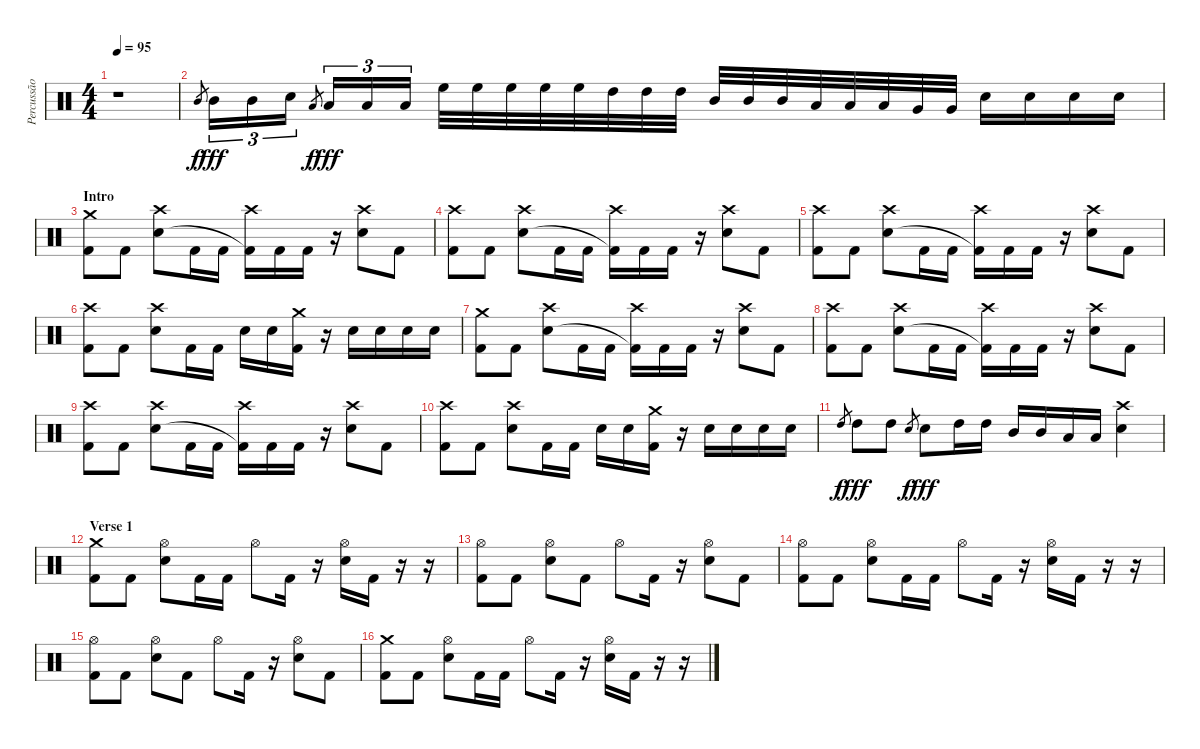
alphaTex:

\track ("Percussão" "Percussão") {instrument percussion}
\staff {score}
\articulation defaults
\ts (4 4)
\tempo 95
\clef neutral
\ks c
r.1{dy fff} |
"Mid Tom (hit)".8{gr dy f} "Mid Tom (hit)".16{tu (3 2) dy fff} "Mid Tom (hit)".16{tu (3 2)} "Snare (hit)".16{tu (3 2)} "Low Tom (hit)".8{gr dy f} "Low Tom (hit)".16{tu (3 2) dy fff} "Low Tom (hit)".16{tu (3 2)} "Low Tom (hit)".16{tu (3 2)} "High Floor Tom (hit)".32 "High Floor Tom (hit)".32 "High Floor Tom (hit)".32 "High Floor Tom (hit)".32 "High Floor Tom (hit)".32 "High Tom (hit)".32 "High Tom (hit)".32 "High Tom (hit)".32 "Mid Tom (hit)".32 "Mid Tom (hit)".32 "Mid Tom (hit)".32 "Low Tom (hit)".32 "Low Tom (hit)".32 "Low Tom (hit)".32 "Very Low Tom (hit)".32 "Very Low Tom (hit)".32 "Electric Snare (hit)".16 "Electric Snare (hit)".16 "Electric Snare (hit)".16 "Electric Snare (hit)".16 |
\section ("" "Intro")
("Crash medium (hit)" "Kick (hit) 2").8 "Kick (hit) 2".8 ("Crash high (hit)" "Electric Snare (hit)").8 "Kick (hit) 2".16 "Kick (hit) 2".16 ("Crash high (hit)" "Kick (hit) 2"{t}).16 "Kick (hit) 2".16 "Kick (hit) 2".16 r.16 ("Crash high (hit)" "Electric Snare (hit)").8 "Kick (hit) 2".8 |
("Crash high (hit)" "Kick (hit) 2").8 "Kick (hit) 2".8 ("Crash high (hit)" "Electric Snare (hit)").8 "Kick (hit) 2".16 "Kick (hit) 2".16 ("Crash high (hit)" "Kick (hit) 2"{t}).16 "Kick (hit) 2".16 "Kick (hit) 2".16 r.16 ("Crash high (hit)" "Electric Snare (hit)").8 "Kick (hit) 2".8 |
("Crash high (hit)" "Kick (hit) 2").8 "Kick (hit) 2".8 ("Crash high (hit)" "Electric Snare (hit)").8 "Kick (hit) 2".16 "Kick (hit) 2".16 ("Crash high (hit)" "Kick (hit) 2"{t}).16 "Kick (hit) 2".16 "Kick (hit) 2".16 r.16 ("Crash high (hit)" "Electric Snare (hit)").8 "Kick (hit) 2".8 |
("Crash high (hit)" "Kick (hit) 2").8 "Kick (hit) 2".8 ("Crash high (hit)" "Electric Snare (hit)").8 "Kick (hit) 2".16 "Kick (hit) 2".16 "Electric Snare (hit)".16 "Electric Snare (hit)".16 ("Crash medium (hit)" "Kick (hit) 2").16 r.16 "Electric Snare (hit)".16 "Electric Snare (hit)".16 "Electric Snare (hit)".16 "Electric Snare (hit)".16 |
("Crash medium (hit)" "Kick (hit) 2").8 "Kick (hit) 2".8 ("Crash high (hit)" "Electric Snare (hit)").8 "Kick (hit) 2".16 "Kick (hit) 2".16 ("Crash high (hit)" "Kick (hit) 2"{t}).16 "Kick (hit) 2".16 "Kick (hit) 2".16 r.16 ("Crash high (hit)" "Electric Snare (hit)").8 "Kick (hit) 2".8 |
("Crash high (hit)" "Kick (hit) 2").8 "Kick (hit) 2".8 ("Crash high (hit)" "Electric Snare (hit)").8 "Kick (hit) 2".16 "Kick (hit) 2".16 ("Crash high (hit)" "Kick (hit) 2"{t}).16 "Kick (hit) 2".16 "Kick (hit) 2".16 r.16 ("Crash high (hit)" "Electric Snare (hit)").8 "Kick (hit) 2".8 |
("Crash high (hit)" "Kick (hit) 2").8 "Kick (hit) 2".8 ("Crash high (hit)" "Electric Snare (hit)").8 "Kick (hit) 2".16 "Kick (hit) 2".16 ("Crash high (hit)" "Kick (hit) 2"{t}).16 "Kick (hit) 2".16 "Kick (hit) 2".16 r.16 ("Crash high (hit)" "Electric Snare (hit)").8 "Kick (hit) 2".8 |
("Crash high (hit)" "Kick (hit) 2").8 "Kick (hit) 2".8 ("Crash high (hit)" "Electric Snare (hit)").8 "Kick (hit) 2".16 "Kick (hit) 2".16 "Electric Snare (hit)".16 "Electric Snare (hit)".16 ("Crash medium (hit)" "Kick (hit) 2").16 r.16 "Electric Snare (hit)".16 "Electric Snare (hit)".16 "Electric Snare (hit)".16 "Electric Snare (hit)".16 |
"High Tom (hit)".8{gr dy f} "High Tom (hit)".8{dy fff} "High Tom (hit)".8 "Electric Snare (hit)".8{gr dy f} "Electric Snare (hit)".8{dy fff} "High Tom (hit)".16 "High Tom (hit)".16 "Mid Tom (hit)".16 "Mid Tom (hit)".16 "Low Tom (hit)".16 "Low Tom (hit)".16 ("Crash high (hit)" "Electric Snare (hit)").4 |
\section ("" "Verse 1")
("Crash medium (hit)" "Kick (hit) 2").8 "Kick (hit) 2".8 ("Hi-Hat (open)" "Electric Snare (hit)").8 "Kick (hit) 2".16 "Kick (hit) 2".16 "Hi-Hat (open)".8 "Kick (hit) 2".16 r.16 ("Hi-Hat (open)" "Electric Snare (hit)").16 "Kick (hit) 2".16 r.16 r.16 |
("Hi-Hat (open)" "Kick (hit) 2").8 "Kick (hit) 2".8 ("Hi-Hat (open)" "Electric Snare (hit)").8 "Kick (hit) 2".8 "Hi-Hat (open)".8 "Kick (hit) 2".16 r.16 ("Hi-Hat (open)" "Electric Snare (hit)").8 "Kick (hit) 2".8 |
("Hi-Hat (open)" "Kick (hit) 2").8 "Kick (hit) 2".8 ("Hi-Hat (open)" "Electric Snare (hit)").8 "Kick (hit) 2".16 "Kick (hit) 2".16 "Hi-Hat (open)".8 "Kick (hit) 2".16 r.16 ("Hi-Hat (open)" "Electric Snare (hit)").16 "Kick (hit) 2".16 r.16 r.16 |
("Hi-Hat (open)" "Kick (hit) 2").8 "Kick (hit) 2".8 ("Hi-Hat (open)" "Electric Snare (hit)").8 "Kick (hit) 2".8 "Hi-Hat (open)".8 "Kick (hit) 2".16 r.16 ("Hi-Hat (open)" "Electric Snare (hit)").8 "Kick (hit) 2".8 |
("Crash medium (hit)" "Kick (hit) 2").8 "Kick (hit) 2".8 ("Hi-Hat (open)" "Electric Snare (hit)").8 "Kick (hit) 2".16 "Kick (hit) 2".16 "Hi-Hat (open)".8 "Kick (hit) 2".16 r.16 ("Hi-Hat (open)" "Electric Snare (hit)").16 "Kick (hit) 2".16 r.16 r.16
